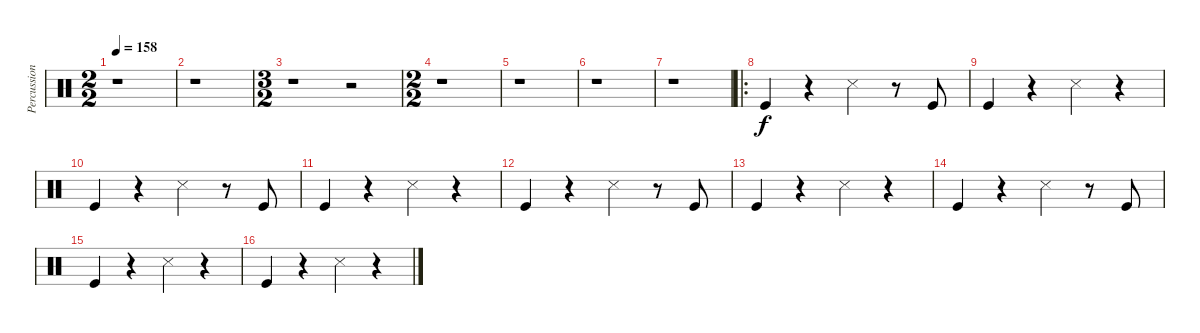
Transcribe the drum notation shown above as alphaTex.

\track ("Percussion" "Percussion") {instrument percussion}
\staff {score}
\articulation defaults
\ts (2 2)
\tempo 158
\clef neutral
\ks c
r.1{dy f} |
r.1 |
\ts (3 2)
r.1 r.2 |
\ts (2 2)
r.1 |
r.1 |
r.1 |
r.1 |
\ro "Kick (hit)".4
r.4 "Snare (side stick) 3".4 r.8 "Kick (hit)".8 |
"Kick (hit)".4 r.4 "Snare (side stick) 3".4 r.4 |
"Kick (hit)".4 r.4 "Snare (side stick) 3".4 r.8 "Kick (hit)".8 |
"Kick (hit)".4 r.4 "Snare (side stick) 3".4 r.4 |
"Kick (hit)".4 r.4 "Snare (side stick) 3".4 r.8 "Kick (hit)".8 |
"Kick (hit)".4 r.4 "Snare (side stick) 3".4 r.4 |
"Kick (hit)".4 r.4 "Snare (side stick) 3".4 r.8 "Kick (hit)".8 |
"Kick (hit)".4 r.4 "Snare (side stick) 3".4 r.4 |
"Kick (hit)".4 r.4 "Snare (side stick) 3".4 r.4
